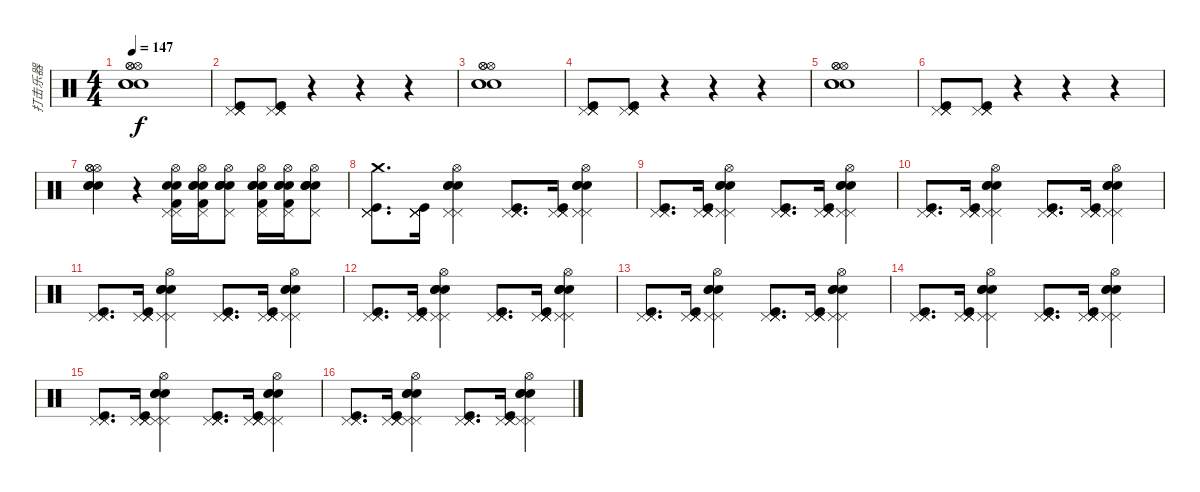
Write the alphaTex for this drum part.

\track ("打击乐器" "打击乐器") {instrument percussion}
\staff {score}
\articulation defaults
\ts (4 4)
\tempo 147
\clef neutral
\ks c
("Hi-Hat (open)" "Hi-Hat (open)" "Hi-Hat (open)" "Electric Snare (hit)" "Electric Snare (hit)" "Electric Snare (hit)").1{dy f} |
("Pedal Hi-Hat (hit)" "Pedal Hi-Hat (hit)" "Pedal Hi-Hat (hit)" "Pedal Hi-Hat (hit)" "Kick (hit)").8 ("Pedal Hi-Hat (hit)" "Pedal Hi-Hat (hit)" "Pedal Hi-Hat (hit)" "Pedal Hi-Hat (hit)" "Kick (hit)").8 r.4 r.4 r.4 |
("Hi-Hat (open)" "Hi-Hat (open)" "Hi-Hat (open)" "Electric Snare (hit)" "Electric Snare (hit)" "Electric Snare (hit)").1 |
("Pedal Hi-Hat (hit)" "Pedal Hi-Hat (hit)" "Pedal Hi-Hat (hit)" "Pedal Hi-Hat (hit)" "Kick (hit)").8 ("Pedal Hi-Hat (hit)" "Pedal Hi-Hat (hit)" "Pedal Hi-Hat (hit)" "Pedal Hi-Hat (hit)" "Kick (hit)").8 r.4 r.4 r.4 |
("Hi-Hat (open)" "Hi-Hat (open)" "Hi-Hat (open)" "Electric Snare (hit)" "Electric Snare (hit)" "Electric Snare (hit)").1 |
("Pedal Hi-Hat (hit)" "Pedal Hi-Hat (hit)" "Pedal Hi-Hat (hit)" "Pedal Hi-Hat (hit)" "Kick (hit)").8 ("Pedal Hi-Hat (hit)" "Pedal Hi-Hat (hit)" "Pedal Hi-Hat (hit)" "Pedal Hi-Hat (hit)" "Kick (hit)").8 r.4 r.4 r.4 |
("Hi-Hat (open)" "Hi-Hat (open)" "Hi-Hat (open)" "Electric Snare (hit)" "Electric Snare (hit)" "Electric Snare (hit)").4 r.4 ("Pedal Hi-Hat (hit)" "Electric Snare (hit)" "Hi-Hat (open)" "Electric Snare (hit)" "Pedal Hi-Hat (hit)" "Kick (hit) 2").16 ("Pedal Hi-Hat (hit)" "Electric Snare (hit)" "Hi-Hat (open)" "Electric Snare (hit)" "Electric Snare (hit)" "Kick (hit) 2").16 ("Pedal Hi-Hat (hit)" "Electric Snare (hit)" "Hi-Hat (open)" "Electric Snare (hit)" "Electric Snare (hit)" "Electric Snare (hit)").8 ("Pedal Hi-Hat (hit)" "Electric Snare (hit)" "Hi-Hat (open)" "Electric Snare (hit)" "Electric Snare (hit)" "Kick (hit) 2").16 ("Pedal Hi-Hat (hit)" "Electric Snare (hit)" "Hi-Hat (open)" "Electric Snare (hit)" "Electric Snare (hit)" "Kick (hit) 2").16 ("Pedal Hi-Hat (hit)" "Electric Snare (hit)" "Hi-Hat (open)" "Electric Snare (hit)" "Electric Snare (hit)" "Electric Snare (hit)").8 |
("Pedal Hi-Hat (hit)" "Pedal Hi-Hat (hit)" "Pedal Hi-Hat (hit)" "Crash medium (hit)" "Kick (hit)").8{d} ("Pedal Hi-Hat (hit)" "Pedal Hi-Hat (hit)" "Pedal Hi-Hat (hit)" "Pedal Hi-Hat (hit)" "Kick (hit)").16 ("Electric Snare (hit)" "Electric Snare (hit)" "Electric Snare (hit)" "Hi-Hat (open)" "Pedal Hi-Hat (hit)" "Pedal Hi-Hat (hit)").4 ("Pedal Hi-Hat (hit)" "Pedal Hi-Hat (hit)" "Pedal Hi-Hat (hit)" "Pedal Hi-Hat (hit)" "Kick (hit)").8{d} ("Pedal Hi-Hat (hit)" "Pedal Hi-Hat (hit)" "Pedal Hi-Hat (hit)" "Pedal Hi-Hat (hit)" "Kick (hit)").16 ("Electric Snare (hit)" "Electric Snare (hit)" "Electric Snare (hit)" "Hi-Hat (open)" "Pedal Hi-Hat (hit)" "Pedal Hi-Hat (hit)").4 |
("Pedal Hi-Hat (hit)" "Pedal Hi-Hat (hit)" "Pedal Hi-Hat (hit)" "Kick (hit)").8{d} ("Pedal Hi-Hat (hit)" "Pedal Hi-Hat (hit)" "Pedal Hi-Hat (hit)" "Pedal Hi-Hat (hit)" "Kick (hit)").16 ("Electric Snare (hit)" "Electric Snare (hit)" "Electric Snare (hit)" "Hi-Hat (open)" "Pedal Hi-Hat (hit)" "Pedal Hi-Hat (hit)").4 ("Pedal Hi-Hat (hit)" "Pedal Hi-Hat (hit)" "Pedal Hi-Hat (hit)" "Pedal Hi-Hat (hit)" "Kick (hit)").8{d} ("Pedal Hi-Hat (hit)" "Pedal Hi-Hat (hit)" "Pedal Hi-Hat (hit)" "Pedal Hi-Hat (hit)" "Kick (hit)").16 ("Electric Snare (hit)" "Electric Snare (hit)" "Electric Snare (hit)" "Hi-Hat (open)" "Pedal Hi-Hat (hit)" "Pedal Hi-Hat (hit)").4 |
("Pedal Hi-Hat (hit)" "Pedal Hi-Hat (hit)" "Pedal Hi-Hat (hit)" "Kick (hit)").8{d} ("Pedal Hi-Hat (hit)" "Pedal Hi-Hat (hit)" "Pedal Hi-Hat (hit)" "Pedal Hi-Hat (hit)" "Kick (hit)").16 ("Electric Snare (hit)" "Electric Snare (hit)" "Electric Snare (hit)" "Hi-Hat (open)" "Pedal Hi-Hat (hit)" "Pedal Hi-Hat (hit)").4 ("Pedal Hi-Hat (hit)" "Pedal Hi-Hat (hit)" "Pedal Hi-Hat (hit)" "Pedal Hi-Hat (hit)" "Kick (hit)").8{d} ("Pedal Hi-Hat (hit)" "Pedal Hi-Hat (hit)" "Pedal Hi-Hat (hit)" "Pedal Hi-Hat (hit)" "Kick (hit)").16 ("Electric Snare (hit)" "Electric Snare (hit)" "Electric Snare (hit)" "Hi-Hat (open)" "Pedal Hi-Hat (hit)" "Pedal Hi-Hat (hit)").4 |
("Pedal Hi-Hat (hit)" "Pedal Hi-Hat (hit)" "Pedal Hi-Hat (hit)" "Kick (hit)").8{d} ("Pedal Hi-Hat (hit)" "Pedal Hi-Hat (hit)" "Pedal Hi-Hat (hit)" "Pedal Hi-Hat (hit)" "Kick (hit)").16 ("Electric Snare (hit)" "Electric Snare (hit)" "Electric Snare (hit)" "Hi-Hat (open)" "Pedal Hi-Hat (hit)" "Pedal Hi-Hat (hit)").4 ("Pedal Hi-Hat (hit)" "Pedal Hi-Hat (hit)" "Pedal Hi-Hat (hit)" "Pedal Hi-Hat (hit)" "Kick (hit)").8{d} ("Pedal Hi-Hat (hit)" "Pedal Hi-Hat (hit)" "Pedal Hi-Hat (hit)" "Pedal Hi-Hat (hit)" "Kick (hit)").16 ("Electric Snare (hit)" "Electric Snare (hit)" "Electric Snare (hit)" "Hi-Hat (open)" "Pedal Hi-Hat (hit)" "Pedal Hi-Hat (hit)").4 |
("Pedal Hi-Hat (hit)" "Pedal Hi-Hat (hit)" "Pedal Hi-Hat (hit)" "Kick (hit)").8{d} ("Pedal Hi-Hat (hit)" "Pedal Hi-Hat (hit)" "Pedal Hi-Hat (hit)" "Pedal Hi-Hat (hit)" "Kick (hit)").16 ("Electric Snare (hit)" "Electric Snare (hit)" "Electric Snare (hit)" "Hi-Hat (open)" "Pedal Hi-Hat (hit)" "Pedal Hi-Hat (hit)").4 ("Pedal Hi-Hat (hit)" "Pedal Hi-Hat (hit)" "Pedal Hi-Hat (hit)" "Pedal Hi-Hat (hit)" "Kick (hit)").8{d} ("Pedal Hi-Hat (hit)" "Pedal Hi-Hat (hit)" "Pedal Hi-Hat (hit)" "Pedal Hi-Hat (hit)" "Kick (hit)").16 ("Electric Snare (hit)" "Electric Snare (hit)" "Electric Snare (hit)" "Hi-Hat (open)" "Pedal Hi-Hat (hit)" "Pedal Hi-Hat (hit)").4 |
("Pedal Hi-Hat (hit)" "Pedal Hi-Hat (hit)" "Pedal Hi-Hat (hit)" "Kick (hit)").8{d} ("Pedal Hi-Hat (hit)" "Pedal Hi-Hat (hit)" "Pedal Hi-Hat (hit)" "Pedal Hi-Hat (hit)" "Kick (hit)").16 ("Electric Snare (hit)" "Electric Snare (hit)" "Electric Snare (hit)" "Hi-Hat (open)" "Pedal Hi-Hat (hit)" "Pedal Hi-Hat (hit)").4 ("Pedal Hi-Hat (hit)" "Pedal Hi-Hat (hit)" "Pedal Hi-Hat (hit)" "Pedal Hi-Hat (hit)" "Kick (hit)").8{d} ("Pedal Hi-Hat (hit)" "Pedal Hi-Hat (hit)" "Pedal Hi-Hat (hit)" "Pedal Hi-Hat (hit)" "Kick (hit)").16 ("Electric Snare (hit)" "Electric Snare (hit)" "Electric Snare (hit)" "Hi-Hat (open)" "Pedal Hi-Hat (hit)" "Pedal Hi-Hat (hit)").4 |
("Pedal Hi-Hat (hit)" "Pedal Hi-Hat (hit)" "Pedal Hi-Hat (hit)" "Kick (hit)").8{d} ("Pedal Hi-Hat (hit)" "Pedal Hi-Hat (hit)" "Pedal Hi-Hat (hit)" "Pedal Hi-Hat (hit)" "Kick (hit)").16 ("Electric Snare (hit)" "Electric Snare (hit)" "Electric Snare (hit)" "Hi-Hat (open)" "Pedal Hi-Hat (hit)" "Pedal Hi-Hat (hit)").4 ("Pedal Hi-Hat (hit)" "Pedal Hi-Hat (hit)" "Pedal Hi-Hat (hit)" "Pedal Hi-Hat (hit)" "Kick (hit)").8{d} ("Pedal Hi-Hat (hit)" "Pedal Hi-Hat (hit)" "Pedal Hi-Hat (hit)" "Pedal Hi-Hat (hit)" "Kick (hit)").16 ("Electric Snare (hit)" "Electric Snare (hit)" "Electric Snare (hit)" "Hi-Hat (open)" "Pedal Hi-Hat (hit)" "Pedal Hi-Hat (hit)").4 |
("Pedal Hi-Hat (hit)" "Pedal Hi-Hat (hit)" "Pedal Hi-Hat (hit)" "Kick (hit)").8{d} ("Pedal Hi-Hat (hit)" "Pedal Hi-Hat (hit)" "Pedal Hi-Hat (hit)" "Pedal Hi-Hat (hit)" "Kick (hit)").16 ("Electric Snare (hit)" "Electric Snare (hit)" "Electric Snare (hit)" "Hi-Hat (open)" "Pedal Hi-Hat (hit)" "Pedal Hi-Hat (hit)").4 ("Pedal Hi-Hat (hit)" "Pedal Hi-Hat (hit)" "Pedal Hi-Hat (hit)" "Pedal Hi-Hat (hit)" "Kick (hit)").8{d} ("Pedal Hi-Hat (hit)" "Pedal Hi-Hat (hit)" "Pedal Hi-Hat (hit)" "Pedal Hi-Hat (hit)" "Kick (hit)").16 ("Electric Snare (hit)" "Electric Snare (hit)" "Electric Snare (hit)" "Hi-Hat (open)" "Pedal Hi-Hat (hit)" "Pedal Hi-Hat (hit)").4 |
("Pedal Hi-Hat (hit)" "Pedal Hi-Hat (hit)" "Pedal Hi-Hat (hit)" "Kick (hit)").8{d} ("Pedal Hi-Hat (hit)" "Pedal Hi-Hat (hit)" "Pedal Hi-Hat (hit)" "Pedal Hi-Hat (hit)" "Kick (hit)").16 ("Electric Snare (hit)" "Electric Snare (hit)" "Electric Snare (hit)" "Hi-Hat (open)" "Pedal Hi-Hat (hit)" "Pedal Hi-Hat (hit)").4 ("Pedal Hi-Hat (hit)" "Pedal Hi-Hat (hit)" "Pedal Hi-Hat (hit)" "Pedal Hi-Hat (hit)" "Kick (hit)").8{d} ("Pedal Hi-Hat (hit)" "Pedal Hi-Hat (hit)" "Pedal Hi-Hat (hit)" "Pedal Hi-Hat (hit)" "Kick (hit)").16 ("Electric Snare (hit)" "Electric Snare (hit)" "Electric Snare (hit)" "Hi-Hat (open)" "Pedal Hi-Hat (hit)" "Pedal Hi-Hat (hit)").4
